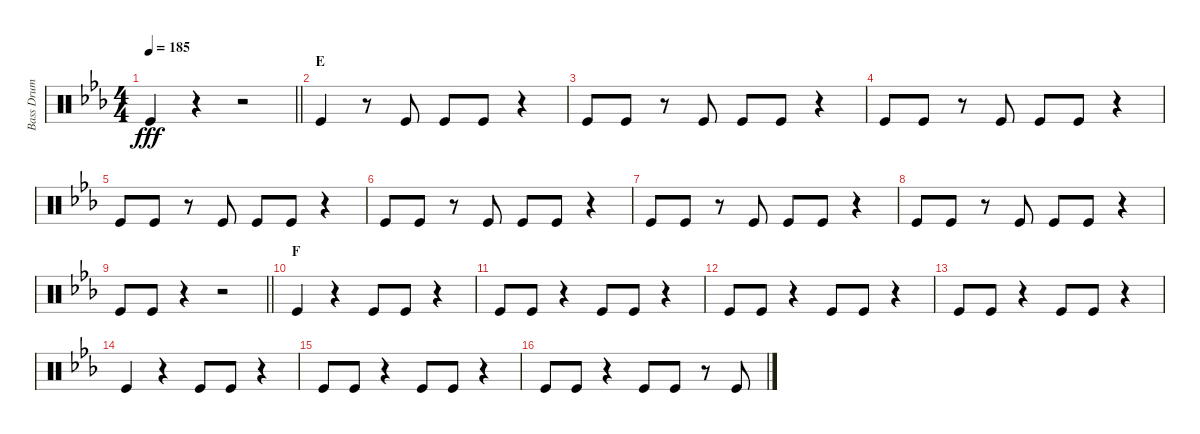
\track ("Bass Drum" "Bass Drum") {instrument percussion}
\staff {score}
\articulation defaults
\ts (4 4)
\tempo 185
\clef neutral
\barLineRight lightlight
\ks eb "Kick (hit)".4{dy fff}
r.4 r.2 |
\section ("" "E")
"Kick (hit)".4 r.8 "Kick (hit)".8 "Kick (hit)".8 "Kick (hit)".8 r.4 |
"Kick (hit)".8 "Kick (hit)".8 r.8 "Kick (hit)".8 "Kick (hit)".8 "Kick (hit)".8 r.4 |
"Kick (hit)".8 "Kick (hit)".8 r.8 "Kick (hit)".8 "Kick (hit)".8 "Kick (hit)".8 r.4 |
"Kick (hit)".8 "Kick (hit)".8 r.8 "Kick (hit)".8 "Kick (hit)".8 "Kick (hit)".8 r.4 |
"Kick (hit)".8 "Kick (hit)".8 r.8 "Kick (hit)".8 "Kick (hit)".8 "Kick (hit)".8 r.4 |
"Kick (hit)".8 "Kick (hit)".8 r.8 "Kick (hit)".8 "Kick (hit)".8 "Kick (hit)".8 r.4 |
"Kick (hit)".8 "Kick (hit)".8 r.8 "Kick (hit)".8 "Kick (hit)".8 "Kick (hit)".8 r.4 |
\barLineRight lightlight "Kick (hit)".8 "Kick (hit)".8
r.4 r.2 |
\section ("" "F")
"Kick (hit)".4 r.4 "Kick (hit)".8 "Kick (hit)".8 r.4 |
"Kick (hit)".8 "Kick (hit)".8 r.4 "Kick (hit)".8 "Kick (hit)".8 r.4 |
"Kick (hit)".8 "Kick (hit)".8 r.4 "Kick (hit)".8 "Kick (hit)".8 r.4 |
"Kick (hit)".8 "Kick (hit)".8 r.4 "Kick (hit)".8 "Kick (hit)".8 r.4 |
"Kick (hit)".4 r.4 "Kick (hit)".8 "Kick (hit)".8 r.4 |
"Kick (hit)".8 "Kick (hit)".8 r.4 "Kick (hit)".8 "Kick (hit)".8 r.4 |
"Kick (hit)".8 "Kick (hit)".8 r.4 "Kick (hit)".8 "Kick (hit)".8 r.8 "Kick (hit)".8
